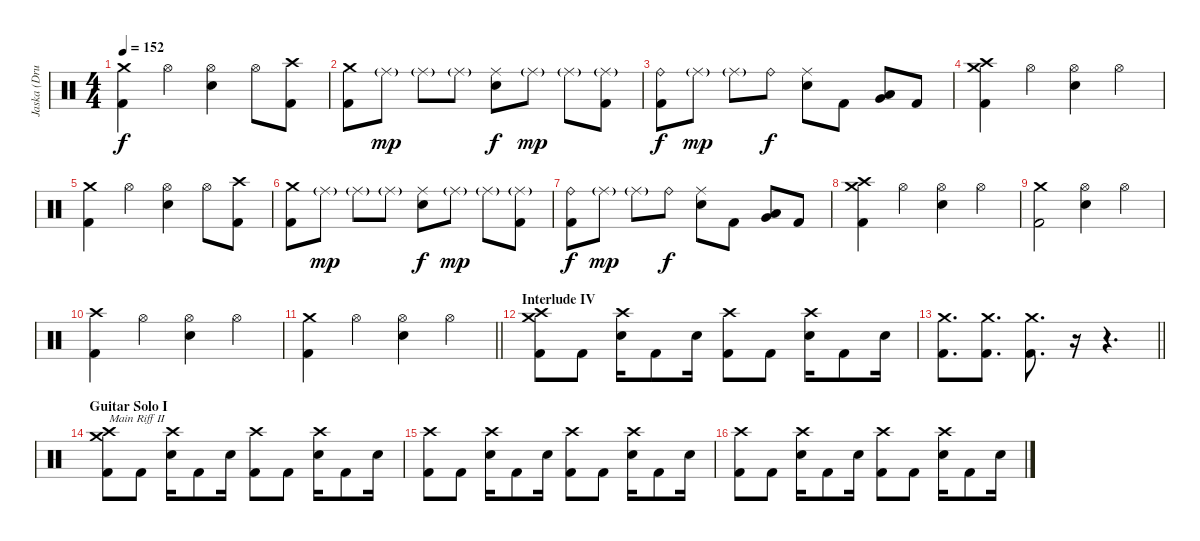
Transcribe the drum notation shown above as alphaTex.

\track ("Jaska (Drums)" "Jaska (Dru") {instrument percussion}
\staff {score}
\articulation defaults
\ts (4 4)
\tempo 152
\clef neutral
\ks c
("Crash medium (hit)" "Kick (hit) 2").4{dy f} "Hi-Hat (open)".4 ("Hi-Hat (open)" "Electric Snare (hit)").4 "Hi-Hat (open)".8 ("Crash high (hit)" "Kick (hit) 2").8 |
("Crash medium (hit)" "Kick (hit) 2").8 "Ride (middle)"{g}.8{dy mp} "Ride (middle)"{g}.8 "Ride (middle)"{g}.8 ("Ride (middle)" "Electric Snare (hit)").8{dy f} "Ride (middle)"{g}.8{dy mp} "Ride (middle)"{g}.8 ("Ride (middle)"{g} "Kick (hit) 2").8 |
("Ride (bell)" "Kick (hit) 2").8{dy f} "Ride (middle)"{g}.8{dy mp} "Ride (middle)"{g}.8 "Ride (bell)".8{dy f} ("Ride (middle)" "Electric Snare (hit)").8 "Kick (hit) 2".8 ("Low Tom (hit)" "Very Low Tom (hit)").8 "Kick (hit) 2".8 |
("Crash medium (hit)" "Crash high (hit)" "Kick (hit) 2").4 "Hi-Hat (open)".4 ("Hi-Hat (open)" "Electric Snare (hit)").4 "Hi-Hat (open)".4 |
("Crash medium (hit)" "Kick (hit) 2").4 "Hi-Hat (open)".4 ("Hi-Hat (open)" "Electric Snare (hit)").4 "Hi-Hat (open)".8 ("Crash high (hit)" "Kick (hit) 2").8 |
("Crash medium (hit)" "Kick (hit) 2").8 "Ride (middle)"{g}.8{dy mp} "Ride (middle)"{g}.8 "Ride (middle)"{g}.8 ("Ride (middle)" "Electric Snare (hit)").8{dy f} "Ride (middle)"{g}.8{dy mp} "Ride (middle)"{g}.8 ("Ride (middle)"{g} "Kick (hit) 2").8 |
("Ride (bell)" "Kick (hit) 2").8{dy f} "Ride (middle)"{g}.8{dy mp} "Ride (middle)"{g}.8 "Ride (bell)".8{dy f} ("Ride (middle)" "Electric Snare (hit)").8 "Kick (hit) 2".8 ("Low Tom (hit)" "Very Low Tom (hit)").8 "Kick (hit) 2".8 |
("Crash medium (hit)" "Crash high (hit)" "Kick (hit) 2").4 "Hi-Hat (open)".4 ("Hi-Hat (open)" "Electric Snare (hit)").4 "Hi-Hat (open)".4 |
("Crash medium (hit)" "Kick (hit) 2").2 ("Hi-Hat (open)" "Electric Snare (hit)").4 "Hi-Hat (open)".4 |
("Crash high (hit)" "Kick (hit) 2").4 "Hi-Hat (open)".4 ("Hi-Hat (open)" "Electric Snare (hit)").4 "Hi-Hat (open)".4 |
\barLineRight lightlight
("Crash medium (hit)" "Kick (hit) 2").4 "Hi-Hat (open)".4 ("Hi-Hat (open)" "Electric Snare (hit)").4 "Hi-Hat (open)".4 |
\section ("" "Interlude IV")
("Crash medium (hit)" "Crash high (hit)" "Kick (hit) 2").8 "Kick (hit) 2".8 ("Crash high (hit)" "Electric Snare (hit)").16 "Kick (hit) 2".8 "Electric Snare (hit)".16 ("Crash high (hit)" "Kick (hit) 2").8 "Kick (hit) 2".8 ("Crash high (hit)" "Electric Snare (hit)").16 "Kick (hit) 2".8 "Electric Snare (hit)".16 |
\barLineRight lightlight
("Crash medium (hit)" "Kick (hit) 2").8{d} ("Crash medium (hit)" "Kick (hit) 2").8{d} ("Crash medium (hit)" "Kick (hit) 2").8{d} r.16{volume 0} r.4{d} |
\section ("" "Guitar Solo I")
("Crash medium (hit)" "Crash high (hit)" "Kick (hit) 2").8{txt "Main Riff II" volume 14 balance 8} "Kick (hit) 2".8 ("Crash high (hit)" "Electric Snare (hit)").16 "Kick (hit) 2".8 "Electric Snare (hit)".16 ("Crash high (hit)" "Kick (hit) 2").8 "Kick (hit) 2".8 ("Crash high (hit)" "Electric Snare (hit)").16 "Kick (hit) 2".8 "Electric Snare (hit)".16 |
("Crash high (hit)" "Kick (hit) 2").8 "Kick (hit) 2".8 ("Crash high (hit)" "Electric Snare (hit)").16 "Kick (hit) 2".8 "Electric Snare (hit)".16 ("Crash high (hit)" "Kick (hit) 2").8 "Kick (hit) 2".8 ("Crash high (hit)" "Electric Snare (hit)").16 "Kick (hit) 2".8 "Electric Snare (hit)".16 |
("Crash high (hit)" "Kick (hit) 2").8 "Kick (hit) 2".8 ("Crash high (hit)" "Electric Snare (hit)").16 "Kick (hit) 2".8 "Electric Snare (hit)".16 ("Crash high (hit)" "Kick (hit) 2").8 "Kick (hit) 2".8 ("Crash high (hit)" "Electric Snare (hit)").16 "Kick (hit) 2".8 "Electric Snare (hit)".16
